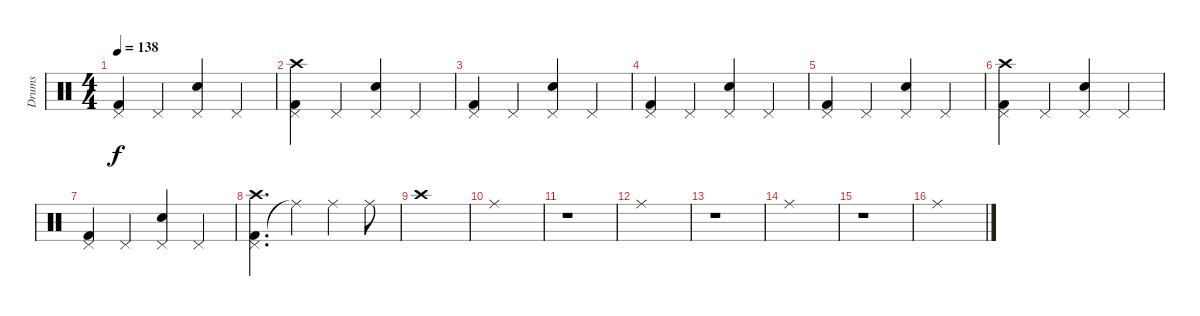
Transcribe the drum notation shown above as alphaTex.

\track ("Drums" "Drums") {instrument percussion}
\staff {score}
\articulation defaults
\ts (4 4)
\tempo 138
\clef neutral
\ks c
("Kick (hit) 2" "Pedal Hi-Hat (hit)").4{dy f} "Pedal Hi-Hat (hit)".4 ("Snare (hit) 2" "Pedal Hi-Hat (hit)").4 "Pedal Hi-Hat (hit)".4 |
("Kick (hit) 2" "Pedal Hi-Hat (hit)" "Crash high (hit)").4 "Pedal Hi-Hat (hit)".4 ("Snare (hit) 2" "Pedal Hi-Hat (hit)").4 "Pedal Hi-Hat (hit)".4 |
("Kick (hit) 2" "Pedal Hi-Hat (hit)").4 "Pedal Hi-Hat (hit)".4 ("Snare (hit) 2" "Pedal Hi-Hat (hit)").4 "Pedal Hi-Hat (hit)".4 |
("Kick (hit) 2" "Pedal Hi-Hat (hit)").4 "Pedal Hi-Hat (hit)".4 ("Snare (hit) 2" "Pedal Hi-Hat (hit)").4 "Pedal Hi-Hat (hit)".4 |
("Kick (hit) 2" "Pedal Hi-Hat (hit)").4 "Pedal Hi-Hat (hit)".4 ("Snare (hit) 2" "Pedal Hi-Hat (hit)").4 "Pedal Hi-Hat (hit)".4 |
("Kick (hit) 2" "Pedal Hi-Hat (hit)" "Crash high (hit)").4 "Pedal Hi-Hat (hit)".4 ("Snare (hit) 2" "Pedal Hi-Hat (hit)").4 "Pedal Hi-Hat (hit)".4 |
("Kick (hit) 2" "Pedal Hi-Hat (hit)").4 "Pedal Hi-Hat (hit)".4 ("Snare (hit) 2" "Pedal Hi-Hat (hit)").4 "Pedal Hi-Hat (hit)".4 |
("Kick (hit) 2" "Pedal Hi-Hat (hit)" "Crash high (hit)").4{d} "Ride (middle)"{t}.4 "Ride (middle)".4 "Ride (middle)".8 |
"Crash high (hit)".1 |
"Ride (middle)".1 |
r.1 |
"Ride (middle)".1 |
r.1 |
"Ride (middle)".1 |
r.1 |
"Ride (middle)".1
